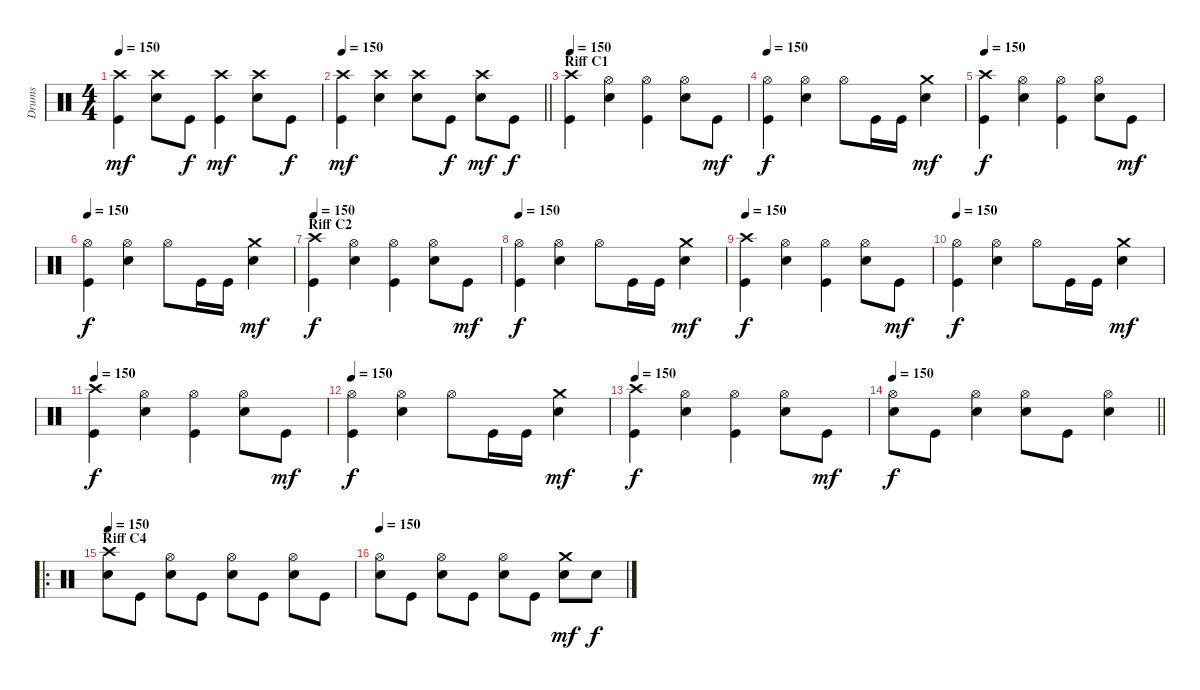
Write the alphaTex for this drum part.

\track ("Drums" "Drums") {instrument percussion}
\staff {score}
\articulation defaults
\ts (4 4)
\tempo 150
\clef neutral
\ks c
("Crash high (hit)" "Kick (hit)").4{dy mf} ("Crash high (hit)" "Snare (hit) 2").8 "Kick (hit)".8{dy f} ("Crash high (hit)" "Kick (hit)").4{dy mf} ("Crash high (hit)" "Snare (hit) 2").8 "Kick (hit)".8{dy f} |
\tempo 150
\barLineRight lightlight
("Crash high (hit)" "Kick (hit)").4{dy mf} ("Crash high (hit)" "Snare (hit) 2").4 ("Crash high (hit)" "Snare (hit) 2").8 "Kick (hit)".8{dy f} ("Crash high (hit)" "Snare (hit) 2").8{dy mf} "Kick (hit)".8{dy f} |
\section ("" "Riff C1")
\tempo 150
("Crash high (hit)" "Kick (hit)").4 ("Hi-Hat (open)" "Snare (hit) 2").4 ("Hi-Hat (open)" "Kick (hit)").4 ("Hi-Hat (open)" "Snare (hit) 2").8 "Kick (hit)".8{dy mf} |
\tempo 150
("Hi-Hat (open)" "Kick (hit)").4{dy f} ("Hi-Hat (open)" "Snare (hit) 2").4 "Hi-Hat (open)".8 "Kick (hit)".16 "Kick (hit)".16 ("Crash medium (hit)" "Snare (hit) 2").4{dy mf} |
\tempo 150
("Crash high (hit)" "Kick (hit)").4{dy f} ("Hi-Hat (open)" "Snare (hit) 2").4 ("Hi-Hat (open)" "Kick (hit)").4 ("Hi-Hat (open)" "Snare (hit) 2").8 "Kick (hit)".8{dy mf} |
\tempo 150
("Hi-Hat (open)" "Kick (hit)").4{dy f} ("Hi-Hat (open)" "Snare (hit) 2").4 "Hi-Hat (open)".8 "Kick (hit)".16 "Kick (hit)".16 ("Crash medium (hit)" "Snare (hit) 2").4{dy mf} |
\section ("" "Riff C2")
\tempo 150
("Crash high (hit)" "Kick (hit)").4{dy f} ("Hi-Hat (open)" "Snare (hit) 2").4 ("Hi-Hat (open)" "Kick (hit)").4 ("Hi-Hat (open)" "Snare (hit) 2").8 "Kick (hit)".8{dy mf} |
\tempo 150
("Hi-Hat (open)" "Kick (hit)").4{dy f} ("Hi-Hat (open)" "Snare (hit) 2").4 "Hi-Hat (open)".8 "Kick (hit)".16 "Kick (hit)".16 ("Crash medium (hit)" "Snare (hit) 2").4{dy mf} |
\tempo 150
("Crash high (hit)" "Kick (hit)").4{dy f} ("Hi-Hat (open)" "Snare (hit) 2").4 ("Hi-Hat (open)" "Kick (hit)").4 ("Hi-Hat (open)" "Snare (hit) 2").8 "Kick (hit)".8{dy mf} |
\tempo 150
("Hi-Hat (open)" "Kick (hit)").4{dy f} ("Hi-Hat (open)" "Snare (hit) 2").4 "Hi-Hat (open)".8 "Kick (hit)".16 "Kick (hit)".16 ("Crash medium (hit)" "Snare (hit) 2").4{dy mf} |
\tempo 150
("Crash high (hit)" "Kick (hit)").4{dy f} ("Hi-Hat (open)" "Snare (hit) 2").4 ("Hi-Hat (open)" "Kick (hit)").4 ("Hi-Hat (open)" "Snare (hit) 2").8 "Kick (hit)".8{dy mf} |
\tempo 150
("Hi-Hat (open)" "Kick (hit)").4{dy f} ("Hi-Hat (open)" "Snare (hit) 2").4 "Hi-Hat (open)".8 "Kick (hit)".16 "Kick (hit)".16 ("Crash medium (hit)" "Snare (hit) 2").4{dy mf} |
\tempo 150
("Crash high (hit)" "Kick (hit)").4{dy f} ("Hi-Hat (open)" "Snare (hit) 2").4 ("Hi-Hat (open)" "Kick (hit)").4 ("Hi-Hat (open)" "Snare (hit) 2").8 "Kick (hit)".8{dy mf} |
\tempo 150
\barLineRight lightlight
("Hi-Hat (open)" "Snare (hit) 2").8{dy f} "Kick (hit)".8 ("Hi-Hat (open)" "Snare (hit) 2").4 ("Hi-Hat (open)" "Snare (hit) 2").8 "Kick (hit)".8 ("Hi-Hat (open)" "Snare (hit) 2").4 |
\ro
\section ("" "Riff C4")
\tempo 150
("Crash high (hit)" "Snare (hit) 2").8 "Kick (hit)".8 ("Hi-Hat (open)" "Snare (hit) 2").8 "Kick (hit)".8 ("Hi-Hat (open)" "Snare (hit) 2").8 "Kick (hit)".8 ("Hi-Hat (open)" "Snare (hit) 2").8 "Kick (hit)".8 |
\tempo 150
("Hi-Hat (open)" "Snare (hit) 2").8 "Kick (hit)".8 ("Hi-Hat (open)" "Snare (hit) 2").8 "Kick (hit)".8 ("Hi-Hat (open)" "Snare (hit) 2").8 "Kick (hit)".8 ("Crash medium (hit)" "Snare (hit) 2").8{dy mf} "Snare (hit) 2".8{dy f}
